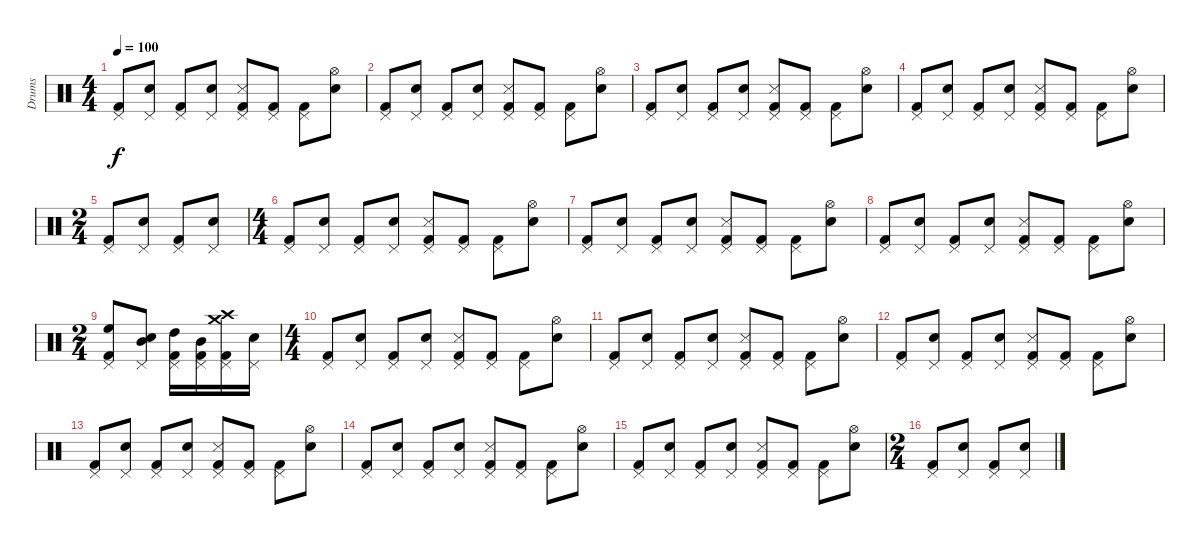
\track ("Drums" "Drums") {instrument percussion}
\staff {score}
\articulation defaults
\ts (4 4)
\tempo 100
\clef neutral
\ks c
("Pedal Hi-Hat (hit)" "Kick (hit) 2").8{dy f} ("Pedal Hi-Hat (hit)" "Snare (hit) 2").8 ("Pedal Hi-Hat (hit)" "Kick (hit) 2").8 ("Pedal Hi-Hat (hit)" "Snare (hit) 2").8 ("Pedal Hi-Hat (hit)" "Kick (hit) 2" "Snare (side stick) 3").8 ("Pedal Hi-Hat (hit)" "Kick (hit) 2").8 ("Pedal Hi-Hat (hit)" "Kick (hit) 2").8 ("Hi-Hat (open)" "Snare (hit) 2").8 |
("Pedal Hi-Hat (hit)" "Kick (hit) 2").8 ("Pedal Hi-Hat (hit)" "Snare (hit) 2").8 ("Pedal Hi-Hat (hit)" "Kick (hit) 2").8 ("Pedal Hi-Hat (hit)" "Snare (hit) 2").8 ("Pedal Hi-Hat (hit)" "Kick (hit) 2" "Snare (side stick) 3").8 ("Pedal Hi-Hat (hit)" "Kick (hit) 2").8 ("Pedal Hi-Hat (hit)" "Kick (hit) 2").8 ("Hi-Hat (open)" "Snare (hit) 2").8 |
("Pedal Hi-Hat (hit)" "Kick (hit) 2").8 ("Pedal Hi-Hat (hit)" "Snare (hit) 2").8 ("Pedal Hi-Hat (hit)" "Kick (hit) 2").8 ("Pedal Hi-Hat (hit)" "Snare (hit) 2").8 ("Pedal Hi-Hat (hit)" "Kick (hit) 2" "Snare (side stick) 3").8 ("Pedal Hi-Hat (hit)" "Kick (hit) 2").8 ("Pedal Hi-Hat (hit)" "Kick (hit) 2").8 ("Hi-Hat (open)" "Snare (hit) 2").8 |
("Pedal Hi-Hat (hit)" "Kick (hit) 2").8 ("Pedal Hi-Hat (hit)" "Snare (hit) 2").8 ("Pedal Hi-Hat (hit)" "Kick (hit) 2").8 ("Pedal Hi-Hat (hit)" "Snare (hit) 2").8 ("Pedal Hi-Hat (hit)" "Kick (hit) 2" "Snare (side stick) 3").8 ("Pedal Hi-Hat (hit)" "Kick (hit) 2").8 ("Pedal Hi-Hat (hit)" "Kick (hit) 2").8 ("Hi-Hat (open)" "Snare (hit) 2").8 |
\ts (2 4)
("Pedal Hi-Hat (hit)" "Kick (hit) 2").8 ("Pedal Hi-Hat (hit)" "Snare (hit) 2").8 ("Pedal Hi-Hat (hit)" "Kick (hit) 2").8 ("Pedal Hi-Hat (hit)" "Snare (hit) 2").8 |
\ts (4 4)
("Pedal Hi-Hat (hit)" "Kick (hit) 2").8 ("Pedal Hi-Hat (hit)" "Snare (hit) 2").8 ("Pedal Hi-Hat (hit)" "Kick (hit) 2").8 ("Pedal Hi-Hat (hit)" "Snare (hit) 2").8 ("Pedal Hi-Hat (hit)" "Kick (hit) 2" "Snare (side stick) 3").8 ("Pedal Hi-Hat (hit)" "Kick (hit) 2").8 ("Pedal Hi-Hat (hit)" "Kick (hit) 2").8 ("Hi-Hat (open)" "Snare (hit) 2").8 |
("Pedal Hi-Hat (hit)" "Kick (hit) 2").8 ("Pedal Hi-Hat (hit)" "Snare (hit) 2").8 ("Pedal Hi-Hat (hit)" "Kick (hit) 2").8 ("Pedal Hi-Hat (hit)" "Snare (hit) 2").8 ("Pedal Hi-Hat (hit)" "Kick (hit) 2" "Snare (side stick) 3").8 ("Pedal Hi-Hat (hit)" "Kick (hit) 2").8 ("Pedal Hi-Hat (hit)" "Kick (hit) 2").8 ("Hi-Hat (open)" "Snare (hit) 2").8 |
("Pedal Hi-Hat (hit)" "Kick (hit) 2").8 ("Pedal Hi-Hat (hit)" "Snare (hit) 2").8 ("Pedal Hi-Hat (hit)" "Kick (hit) 2").8 ("Pedal Hi-Hat (hit)" "Snare (hit) 2").8 ("Pedal Hi-Hat (hit)" "Kick (hit) 2" "Snare (side stick) 3").8 ("Pedal Hi-Hat (hit)" "Kick (hit) 2").8 ("Pedal Hi-Hat (hit)" "Kick (hit) 2").8 ("Hi-Hat (open)" "Snare (hit) 2").8 |
\ts (2 4)
("Pedal Hi-Hat (hit)" "Kick (hit) 2" "High Floor Tom (hit)").8 ("Pedal Hi-Hat (hit)" "Snare (hit) 2" "Mid Tom (hit)").8 ("Pedal Hi-Hat (hit)" "Kick (hit) 2" "High Tom (hit)").16 ("Pedal Hi-Hat (hit)" "Kick (hit) 2" "Mid Tom (hit)").16 ("Pedal Hi-Hat (hit)" "Kick (hit) 2" "Crash medium (hit)" "Crash high (hit)").16 ("Pedal Hi-Hat (hit)" "Snare (hit) 2").16 |
\ts (4 4)
("Pedal Hi-Hat (hit)" "Kick (hit) 2").8 ("Pedal Hi-Hat (hit)" "Snare (hit) 2").8 ("Pedal Hi-Hat (hit)" "Kick (hit) 2").8 ("Pedal Hi-Hat (hit)" "Snare (hit) 2").8 ("Pedal Hi-Hat (hit)" "Kick (hit) 2" "Snare (side stick) 3").8 ("Pedal Hi-Hat (hit)" "Kick (hit) 2").8 ("Pedal Hi-Hat (hit)" "Kick (hit) 2").8 ("Hi-Hat (open)" "Snare (hit) 2").8 |
("Pedal Hi-Hat (hit)" "Kick (hit) 2").8 ("Pedal Hi-Hat (hit)" "Snare (hit) 2").8 ("Pedal Hi-Hat (hit)" "Kick (hit) 2").8 ("Pedal Hi-Hat (hit)" "Snare (hit) 2").8 ("Pedal Hi-Hat (hit)" "Kick (hit) 2" "Snare (side stick) 3").8 ("Pedal Hi-Hat (hit)" "Kick (hit) 2").8 ("Pedal Hi-Hat (hit)" "Kick (hit) 2").8 ("Hi-Hat (open)" "Snare (hit) 2").8 |
("Pedal Hi-Hat (hit)" "Kick (hit) 2").8 ("Pedal Hi-Hat (hit)" "Snare (hit) 2").8 ("Pedal Hi-Hat (hit)" "Kick (hit) 2").8 ("Pedal Hi-Hat (hit)" "Snare (hit) 2").8 ("Pedal Hi-Hat (hit)" "Kick (hit) 2" "Snare (side stick) 3").8 ("Pedal Hi-Hat (hit)" "Kick (hit) 2").8 ("Pedal Hi-Hat (hit)" "Kick (hit) 2").8 ("Hi-Hat (open)" "Snare (hit) 2").8 |
("Pedal Hi-Hat (hit)" "Kick (hit) 2").8 ("Pedal Hi-Hat (hit)" "Snare (hit) 2").8 ("Pedal Hi-Hat (hit)" "Kick (hit) 2").8 ("Pedal Hi-Hat (hit)" "Snare (hit) 2").8 ("Pedal Hi-Hat (hit)" "Kick (hit) 2" "Snare (side stick) 3").8 ("Pedal Hi-Hat (hit)" "Kick (hit) 2").8 ("Pedal Hi-Hat (hit)" "Kick (hit) 2").8 ("Hi-Hat (open)" "Snare (hit) 2").8 |
("Pedal Hi-Hat (hit)" "Kick (hit) 2").8 ("Pedal Hi-Hat (hit)" "Snare (hit) 2").8 ("Pedal Hi-Hat (hit)" "Kick (hit) 2").8 ("Pedal Hi-Hat (hit)" "Snare (hit) 2").8 ("Pedal Hi-Hat (hit)" "Kick (hit) 2" "Snare (side stick) 3").8 ("Pedal Hi-Hat (hit)" "Kick (hit) 2").8 ("Pedal Hi-Hat (hit)" "Kick (hit) 2").8 ("Hi-Hat (open)" "Snare (hit) 2").8 |
("Pedal Hi-Hat (hit)" "Kick (hit) 2").8 ("Pedal Hi-Hat (hit)" "Snare (hit) 2").8 ("Pedal Hi-Hat (hit)" "Kick (hit) 2").8 ("Pedal Hi-Hat (hit)" "Snare (hit) 2").8 ("Pedal Hi-Hat (hit)" "Kick (hit) 2" "Snare (side stick) 3").8 ("Pedal Hi-Hat (hit)" "Kick (hit) 2").8 ("Pedal Hi-Hat (hit)" "Kick (hit) 2").8 ("Hi-Hat (open)" "Snare (hit) 2").8 |
\ts (2 4)
("Pedal Hi-Hat (hit)" "Kick (hit) 2").8 ("Pedal Hi-Hat (hit)" "Snare (hit) 2").8 ("Pedal Hi-Hat (hit)" "Kick (hit) 2").8 ("Pedal Hi-Hat (hit)" "Snare (hit) 2").8
